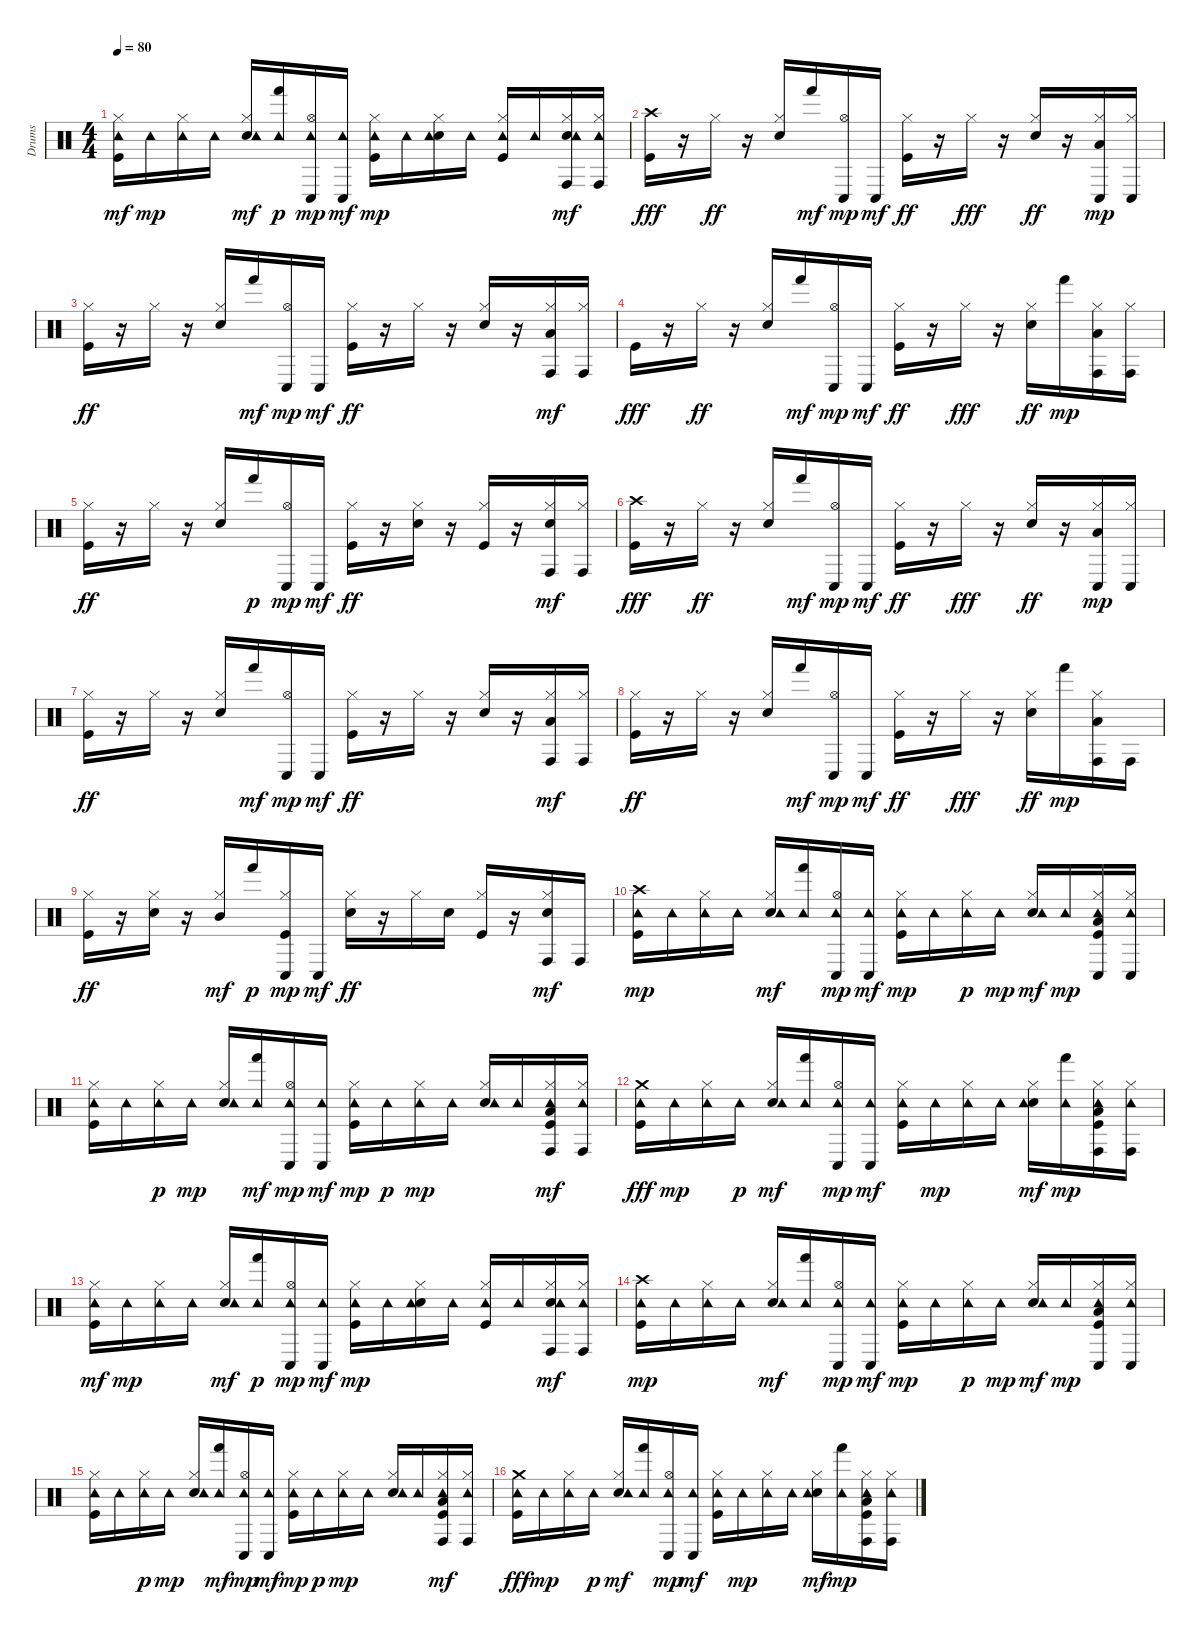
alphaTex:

\track ("Drums" "Drums") {instrument percussion}
\staff {score}
\articulation defaults
\ts (4 4)
\tempo 80
\clef neutral
\ks c
("Kick (hit)" "Hi-Hat (closed)" "Tambourine (hit)").16{dy mf} "Tambourine (hit)".16{dy mp} ("Hi-Hat (closed)" "Tambourine (hit)").16 "Tambourine (hit)".16 ("Electric Snare (hit)" "Hi-Hat (closed)" "Tambourine (hit)").16{dy mf} ("Tambourine (hit)" "Hand (hit)").16{dy p} ("Hi-Hat (open)" "Tambourine (hit)" "Conga low (hit)").16{dy mp} ("Tambourine (hit)" "Conga low (hit)").16{dy mf} ("Kick (hit)" "Hi-Hat (closed)" "Tambourine (hit)").16{dy mp} "Tambourine (hit)".16 ("Electric Snare (hit)" "Hi-Hat (closed)" "Tambourine (hit)").16 "Tambourine (hit)".16 ("Kick (hit)" "Hi-Hat (closed)" "Tambourine (hit)").16 "Tambourine (hit)".16 ("Electric Snare (hit)" "Hi-Hat (closed)" "Tambourine (hit)" "Conga high (hit)").16{dy mf} ("Hi-Hat (closed)" "Tambourine (hit)" "Conga high (hit)").16 |
("Kick (hit)" "Crash high (hit)").16{dy fff} r.16 "Hi-Hat (closed)".16{dy ff} r.16 ("Electric Snare (hit)" "Hi-Hat (closed)").16 "Hand (hit)".16{dy mf} ("Hi-Hat (open)" "Conga low (hit)").16{dy mp} "Conga low (hit)".16{dy mf} ("Kick (hit)" "Hi-Hat (closed)").16{dy ff} r.16 "Hi-Hat (closed)".16{dy fff} r.16 ("Electric Snare (hit)" "Hi-Hat (closed)").16{dy ff} r.16 ("Hi-Hat (closed)" "Low Tom (hit)" "Conga low (hit)").16{dy mp} ("Hi-Hat (closed)" "Conga low (hit)").16 |
("Kick (hit)" "Hi-Hat (closed)").16{dy ff} r.16 "Hi-Hat (closed)".16 r.16 ("Electric Snare (hit)" "Hi-Hat (closed)").16 "Hand (hit)".16{dy mf} ("Hi-Hat (open)" "Conga low (hit)").16{dy mp} "Conga low (hit)".16{dy mf} ("Kick (hit)" "Hi-Hat (closed)").16{dy ff} r.16 "Hi-Hat (closed)".16 r.16 ("Electric Snare (hit)" "Hi-Hat (closed)").16 r.16 ("Hi-Hat (closed)" "Low Tom (hit)" "Conga high (hit)").16{dy mf} ("Hi-Hat (closed)" "Conga high (hit)").16 |
"Kick (hit)".16{dy fff} r.16 "Hi-Hat (closed)".16{dy ff} r.16 ("Electric Snare (hit)" "Hi-Hat (closed)").16 "Hand (hit)".16{dy mf} ("Hi-Hat (open)" "Conga low (hit)").16{dy mp} "Conga low (hit)".16{dy mf} ("Kick (hit)" "Hi-Hat (closed)").16{dy ff} r.16 "Hi-Hat (closed)".16{dy fff} r.16 ("Electric Snare (hit)" "Hi-Hat (closed)").16{dy ff} "Hand (hit)".16{dy mp} ("Hi-Hat (closed)" "Low Tom (hit)" "Conga high (hit)").16 ("Hi-Hat (closed)" "Conga high (hit)").16 |
("Kick (hit)" "Hi-Hat (closed)").16{dy ff} r.16 "Hi-Hat (closed)".16 r.16 ("Electric Snare (hit)" "Hi-Hat (closed)").16 "Hand (hit)".16{dy p} ("Hi-Hat (open)" "Conga low (hit)").16{dy mp} "Conga low (hit)".16{dy mf} ("Kick (hit)" "Hi-Hat (closed)").16{dy ff} r.16 ("Electric Snare (hit)" "Hi-Hat (closed)").16 r.16 ("Kick (hit)" "Hi-Hat (closed)").16 r.16 ("Electric Snare (hit)" "Hi-Hat (closed)" "Conga high (hit)").16{dy mf} ("Hi-Hat (closed)" "Conga high (hit)").16 |
("Kick (hit)" "Crash high (hit)").16{dy fff} r.16 "Hi-Hat (closed)".16{dy ff} r.16 ("Electric Snare (hit)" "Hi-Hat (closed)").16 "Hand (hit)".16{dy mf} ("Hi-Hat (open)" "Conga low (hit)").16{dy mp} "Conga low (hit)".16{dy mf} ("Kick (hit)" "Hi-Hat (closed)").16{dy ff} r.16 "Hi-Hat (closed)".16{dy fff} r.16 ("Electric Snare (hit)" "Hi-Hat (closed)").16{dy ff} r.16 ("Hi-Hat (closed)" "Low Tom (hit)" "Conga low (hit)").16{dy mp} ("Hi-Hat (closed)" "Conga low (hit)").16 |
("Kick (hit)" "Hi-Hat (closed)").16{dy ff} r.16 "Hi-Hat (closed)".16 r.16 ("Electric Snare (hit)" "Hi-Hat (closed)").16 "Hand (hit)".16{dy mf} ("Hi-Hat (open)" "Conga low (hit)").16{dy mp} "Conga low (hit)".16{dy mf} ("Kick (hit)" "Hi-Hat (closed)").16{dy ff} r.16 "Hi-Hat (closed)".16 r.16 ("Electric Snare (hit)" "Hi-Hat (closed)").16 r.16 ("Hi-Hat (closed)" "Low Tom (hit)" "Conga high (hit)").16{dy mf} ("Hi-Hat (closed)" "Conga high (hit)").16 |
("Kick (hit)" "Hi-Hat (closed)").16{dy ff} r.16 "Hi-Hat (closed)".16 r.16 ("Electric Snare (hit)" "Hi-Hat (closed)").16 "Hand (hit)".16{dy mf} ("Hi-Hat (open)" "Conga low (hit)").16{dy mp} "Conga low (hit)".16{dy mf} ("Kick (hit)" "Hi-Hat (closed)").16{dy ff} r.16 "Hi-Hat (closed)".16{dy fff} r.16 ("Electric Snare (hit)" "Hi-Hat (closed)").16{dy ff} "Hand (hit)".16{dy mp} ("Hi-Hat (closed)" "Low Tom (hit)" "Conga high (hit)").16 "Conga high (hit)".16 |
("Kick (hit)" "Hi-Hat (closed)").16{dy ff} r.16 ("Electric Snare (hit)" "Hi-Hat (closed)").16 r.16 ("Hi-Hat (closed)" "Mid Tom (hit)").16{dy mf} "Hand (hit)".16{dy p} ("Kick (hit)" "Hi-Hat (closed)" "Conga low (hit)").16{dy mp} "Conga low (hit)".16{dy mf} ("Electric Snare (hit)" "Hi-Hat (closed)").16{dy ff} r.16 "Hi-Hat (closed)".16 "Electric Snare (hit)".16 ("Kick (hit)" "Hi-Hat (closed)").16 r.16 ("Electric Snare (hit)" "Hi-Hat (closed)" "Conga high (hit)").16{dy mf} "Conga high (hit)".16 |
("Kick (hit)" "Crash high (hit)" "Tambourine (hit)").16{dy mp} "Tambourine (hit)".16 ("Hi-Hat (closed)" "Tambourine (hit)").16 "Tambourine (hit)".16 ("Electric Snare (hit)" "Hi-Hat (closed)" "Tambourine (hit)").16{dy mf} ("Tambourine (hit)" "Hand (hit)").16 ("Hi-Hat (open)" "Tambourine (hit)" "Conga low (hit)").16{dy mp} ("Tambourine (hit)" "Conga low (hit)").16{dy mf} ("Kick (hit)" "Hi-Hat (closed)" "Tambourine (hit)").16{dy mp} "Tambourine (hit)".16 ("Hi-Hat (closed)" "Tambourine (hit)").16{dy p} "Tambourine (hit)".16{dy mp} ("Electric Snare (hit)" "Hi-Hat (closed)" "Tambourine (hit)").16{dy mf} "Tambourine (hit)".16{dy mp} ("Kick (hit)" "Hi-Hat (closed)" "Low Tom (hit)" "Tambourine (hit)" "Conga low (hit)").16 ("Hi-Hat (closed)" "Tambourine (hit)" "Conga low (hit)").16 |
("Kick (hit)" "Hi-Hat (closed)" "Tambourine (hit)").16 "Tambourine (hit)".16 ("Hi-Hat (closed)" "Tambourine (hit)").16{dy p} "Tambourine (hit)".16{dy mp} ("Electric Snare (hit)" "Hi-Hat (closed)" "Tambourine (hit)").16 ("Tambourine (hit)" "Hand (hit)").16{dy mf} ("Hi-Hat (open)" "Tambourine (hit)" "Conga low (hit)").16{dy mp} ("Tambourine (hit)" "Conga low (hit)").16{dy mf} ("Kick (hit)" "Hi-Hat (closed)" "Tambourine (hit)").16{dy mp} "Tambourine (hit)".16{dy p} ("Hi-Hat (closed)" "Tambourine (hit)").16{dy mp} "Tambourine (hit)".16 ("Electric Snare (hit)" "Hi-Hat (closed)" "Tambourine (hit)").16 "Tambourine (hit)".16 ("Kick (hit)" "Hi-Hat (closed)" "Low Tom (hit)" "Tambourine (hit)" "Conga high (hit)").16{dy mf} ("Hi-Hat (closed)" "Tambourine (hit)" "Conga high (hit)").16 |
("Kick (hit)" "Tambourine (hit)" "Crash medium (hit)").16{dy fff} "Tambourine (hit)".16{dy mp} ("Hi-Hat (closed)" "Tambourine (hit)").16 "Tambourine (hit)".16{dy p} ("Electric Snare (hit)" "Hi-Hat (closed)" "Tambourine (hit)").16{dy mf} ("Tambourine (hit)" "Hand (hit)").16 ("Hi-Hat (open)" "Tambourine (hit)" "Conga low (hit)").16{dy mp} ("Tambourine (hit)" "Conga low (hit)").16{dy mf} ("Kick (hit)" "Hi-Hat (closed)" "Tambourine (hit)").16 "Tambourine (hit)".16{dy mp} ("Hi-Hat (closed)" "Tambourine (hit)").16 "Tambourine (hit)".16 ("Electric Snare (hit)" "Hi-Hat (closed)" "Tambourine (hit)").16{dy mf} ("Tambourine (hit)" "Hand (hit)").16{dy mp} ("Kick (hit)" "Hi-Hat (closed)" "Low Tom (hit)" "Tambourine (hit)" "Conga high (hit)").16 ("Hi-Hat (closed)" "Tambourine (hit)" "Conga high (hit)").16 |
("Kick (hit)" "Hi-Hat (closed)" "Tambourine (hit)").16{dy mf} "Tambourine (hit)".16{dy mp} ("Hi-Hat (closed)" "Tambourine (hit)").16 "Tambourine (hit)".16 ("Electric Snare (hit)" "Hi-Hat (closed)" "Tambourine (hit)").16{dy mf} ("Tambourine (hit)" "Hand (hit)").16{dy p} ("Hi-Hat (open)" "Tambourine (hit)" "Conga low (hit)").16{dy mp} ("Tambourine (hit)" "Conga low (hit)").16{dy mf} ("Kick (hit)" "Hi-Hat (closed)" "Tambourine (hit)").16{dy mp} "Tambourine (hit)".16 ("Electric Snare (hit)" "Hi-Hat (closed)" "Tambourine (hit)").16 "Tambourine (hit)".16 ("Kick (hit)" "Hi-Hat (closed)" "Tambourine (hit)").16 "Tambourine (hit)".16 ("Electric Snare (hit)" "Hi-Hat (closed)" "Tambourine (hit)" "Conga high (hit)").16{dy mf} ("Hi-Hat (closed)" "Tambourine (hit)" "Conga high (hit)").16 |
("Kick (hit)" "Crash high (hit)" "Tambourine (hit)").16{dy mp} "Tambourine (hit)".16 ("Hi-Hat (closed)" "Tambourine (hit)").16 "Tambourine (hit)".16 ("Electric Snare (hit)" "Hi-Hat (closed)" "Tambourine (hit)").16{dy mf} ("Tambourine (hit)" "Hand (hit)").16 ("Hi-Hat (open)" "Tambourine (hit)" "Conga low (hit)").16{dy mp} ("Tambourine (hit)" "Conga low (hit)").16{dy mf} ("Kick (hit)" "Hi-Hat (closed)" "Tambourine (hit)").16{dy mp} "Tambourine (hit)".16 ("Hi-Hat (closed)" "Tambourine (hit)").16{dy p} "Tambourine (hit)".16{dy mp} ("Electric Snare (hit)" "Hi-Hat (closed)" "Tambourine (hit)").16{dy mf} "Tambourine (hit)".16{dy mp} ("Kick (hit)" "Hi-Hat (closed)" "Low Tom (hit)" "Tambourine (hit)" "Conga low (hit)").16 ("Hi-Hat (closed)" "Tambourine (hit)" "Conga low (hit)").16 |
("Kick (hit)" "Hi-Hat (closed)" "Tambourine (hit)").16 "Tambourine (hit)".16 ("Hi-Hat (closed)" "Tambourine (hit)").16{dy p} "Tambourine (hit)".16{dy mp} ("Electric Snare (hit)" "Hi-Hat (closed)" "Tambourine (hit)").16 ("Tambourine (hit)" "Hand (hit)").16{dy mf} ("Hi-Hat (open)" "Tambourine (hit)" "Conga low (hit)").16{dy mp} ("Tambourine (hit)" "Conga low (hit)").16{dy mf} ("Kick (hit)" "Hi-Hat (closed)" "Tambourine (hit)").16{dy mp} "Tambourine (hit)".16{dy p} ("Hi-Hat (closed)" "Tambourine (hit)").16{dy mp} "Tambourine (hit)".16 ("Electric Snare (hit)" "Hi-Hat (closed)" "Tambourine (hit)").16 "Tambourine (hit)".16 ("Kick (hit)" "Hi-Hat (closed)" "Low Tom (hit)" "Tambourine (hit)" "Conga high (hit)").16{dy mf} ("Hi-Hat (closed)" "Tambourine (hit)" "Conga high (hit)").16 |
("Kick (hit)" "Tambourine (hit)" "Crash medium (hit)").16{dy fff} "Tambourine (hit)".16{dy mp} ("Hi-Hat (closed)" "Tambourine (hit)").16 "Tambourine (hit)".16{dy p} ("Electric Snare (hit)" "Hi-Hat (closed)" "Tambourine (hit)").16{dy mf} ("Tambourine (hit)" "Hand (hit)").16 ("Hi-Hat (open)" "Tambourine (hit)" "Conga low (hit)").16{dy mp} ("Tambourine (hit)" "Conga low (hit)").16{dy mf} ("Kick (hit)" "Hi-Hat (closed)" "Tambourine (hit)").16 "Tambourine (hit)".16{dy mp} ("Hi-Hat (closed)" "Tambourine (hit)").16 "Tambourine (hit)".16 ("Electric Snare (hit)" "Hi-Hat (closed)" "Tambourine (hit)").16{dy mf} ("Tambourine (hit)" "Hand (hit)").16{dy mp} ("Kick (hit)" "Hi-Hat (closed)" "Low Tom (hit)" "Tambourine (hit)" "Conga high (hit)").16 ("Hi-Hat (closed)" "Tambourine (hit)" "Conga high (hit)").16
